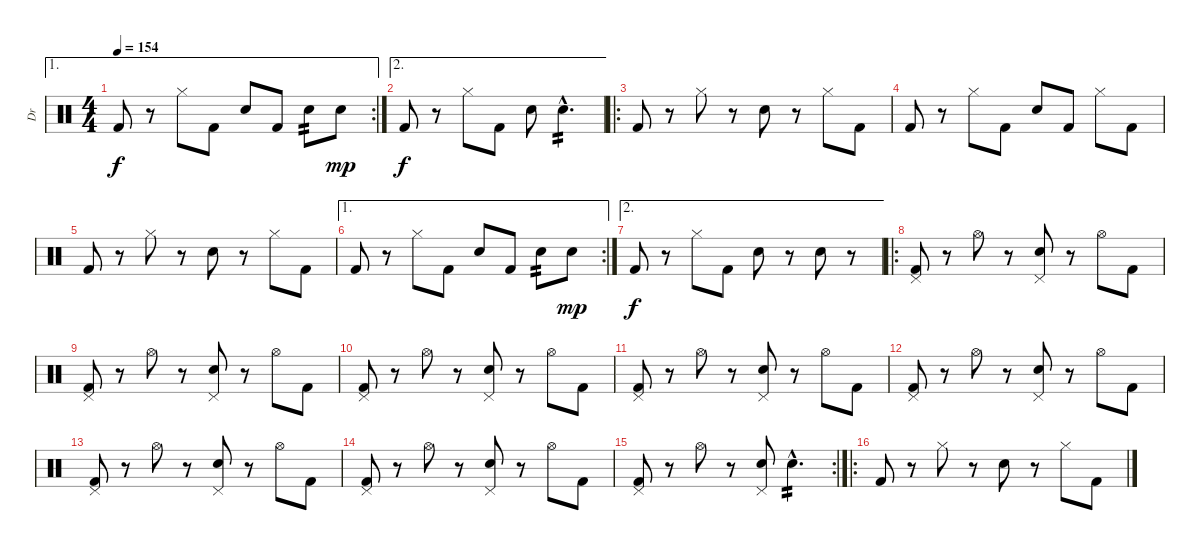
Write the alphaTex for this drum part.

\track ("Dr" "Dr") {instrument percussion}
\staff {score}
\articulation defaults
\ae 1
\rc 2
\ts (4 4)
\tempo 154
\clef neutral
\ks c "Kick (hit) 2".8{dy f}
r.8 "Hi-Hat (closed)".8 "Kick (hit) 2".8 "Electric Snare (hit)".8 "Kick (hit) 2".8 "Electric Snare (hit)".8{tp 2} "Electric Snare (hit)".8{dy mp} |
\ae 2 "Kick (hit) 2".8{dy f}
r.8 "Hi-Hat (closed)".8 "Kick (hit) 2".8 "Electric Snare (hit)".8 "Electric Snare (hit)"{hac}.4{d tp 2} |
\ro "Kick (hit) 2".8
r.8 "Hi-Hat (closed)".8 r.8 "Electric Snare (hit)".8 r.8 "Hi-Hat (closed)".8 "Kick (hit) 2".8 |
"Kick (hit) 2".8 r.8 "Hi-Hat (closed)".8 "Kick (hit) 2".8 "Electric Snare (hit)".8 "Kick (hit) 2".8 "Hi-Hat (closed)".8 "Kick (hit) 2".8 |
"Kick (hit) 2".8 r.8 "Hi-Hat (closed)".8 r.8 "Electric Snare (hit)".8 r.8 "Hi-Hat (closed)".8 "Kick (hit) 2".8 |
\ae 1
\rc 2 "Kick (hit) 2".8
r.8 "Hi-Hat (closed)".8 "Kick (hit) 2".8 "Electric Snare (hit)".8 "Kick (hit) 2".8 "Electric Snare (hit)".8{tp 2} "Electric Snare (hit)".8{dy mp} |
\ae 2 "Kick (hit) 2".8{dy f}
r.8 "Hi-Hat (closed)".8 "Kick (hit) 2".8 "Electric Snare (hit)".8 r.8 "Electric Snare (hit)".8 r.8 |
\ro
("Pedal Hi-Hat (hit)" "Kick (hit) 2").8 r.8 "Hi-Hat (open)".8 r.8 ("Pedal Hi-Hat (hit)" "Electric Snare (hit)").8 r.8 "Hi-Hat (open)".8 "Kick (hit) 2".8 |
("Pedal Hi-Hat (hit)" "Kick (hit) 2").8 r.8 "Hi-Hat (open)".8 r.8 ("Pedal Hi-Hat (hit)" "Electric Snare (hit)").8 r.8 "Hi-Hat (open)".8 "Kick (hit) 2".8 |
("Pedal Hi-Hat (hit)" "Kick (hit) 2").8 r.8 "Hi-Hat (open)".8 r.8 ("Pedal Hi-Hat (hit)" "Electric Snare (hit)").8 r.8 "Hi-Hat (open)".8 "Kick (hit) 2".8 |
("Pedal Hi-Hat (hit)" "Kick (hit) 2").8 r.8 "Hi-Hat (open)".8 r.8 ("Pedal Hi-Hat (hit)" "Electric Snare (hit)").8 r.8 "Hi-Hat (open)".8 "Kick (hit) 2".8 |
("Pedal Hi-Hat (hit)" "Kick (hit) 2").8 r.8 "Hi-Hat (open)".8 r.8 ("Pedal Hi-Hat (hit)" "Electric Snare (hit)").8 r.8 "Hi-Hat (open)".8 "Kick (hit) 2".8 |
("Pedal Hi-Hat (hit)" "Kick (hit) 2").8 r.8 "Hi-Hat (open)".8 r.8 ("Pedal Hi-Hat (hit)" "Electric Snare (hit)").8 r.8 "Hi-Hat (open)".8 "Kick (hit) 2".8 |
("Pedal Hi-Hat (hit)" "Kick (hit) 2").8 r.8 "Hi-Hat (open)".8 r.8 ("Pedal Hi-Hat (hit)" "Electric Snare (hit)").8 r.8 "Hi-Hat (open)".8 "Kick (hit) 2".8 |
\rc 2
("Pedal Hi-Hat (hit)" "Kick (hit) 2").8 r.8 "Hi-Hat (open)".8 r.8 ("Pedal Hi-Hat (hit)" "Electric Snare (hit)").8 "Electric Snare (hit)"{hac}.4{d tp 2} |
\ro "Kick (hit) 2".8
r.8 "Hi-Hat (closed)".8 r.8 "Electric Snare (hit)".8 r.8 "Hi-Hat (closed)".8 "Kick (hit) 2".8
